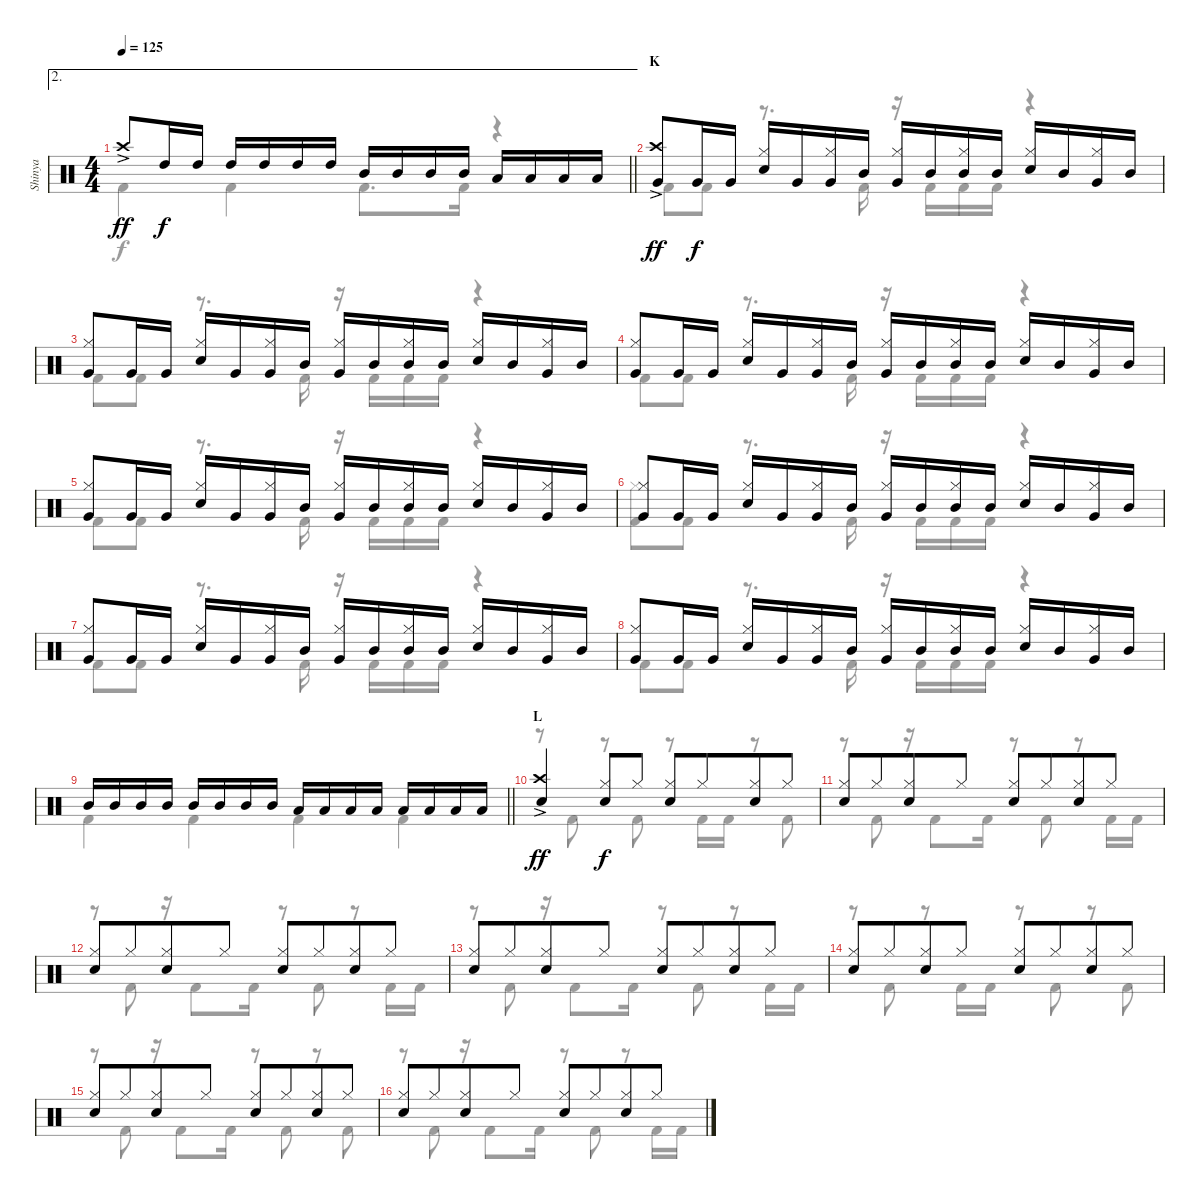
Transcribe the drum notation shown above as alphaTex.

\track ("Shinya" "Shinya") {instrument percussion}
\staff {score}
\articulation defaults
\voice
\ae 2
\ts (4 4)
\tempo 125
\clef neutral
\barLineRight lightlight
\ks c "Crash high (hit)"{ac}.8{dy ff} "High Tom (hit)".16{dy f} "High Tom (hit)".16 "High Tom (hit)".16 "High Tom (hit)".16 "High Tom (hit)".16 "High Tom (hit)".16 "Mid Tom (hit)".16 "Mid Tom (hit)".16 "Mid Tom (hit)".16 "Mid Tom (hit)".16 "Low Tom (hit)".16 "Low Tom (hit)".16 "Low Tom (hit)".16 "Low Tom (hit)".16
|
\section ("" "K")
("Crash high (hit)"{ac} "Very Low Tom (hit)").8{dy ff} "Very Low Tom (hit)".16{dy f} "Very Low Tom (hit)".16 ("Hi-Hat (closed)" "Snare (hit) 2").16 "Very Low Tom (hit)".16 ("Hi-Hat (closed)" "Very Low Tom (hit)").16 "Mid Tom (hit)".16 ("Hi-Hat (closed)" "Very Low Tom (hit)").16 "Mid Tom (hit)".16 ("Hi-Hat (closed)" "Mid Tom (hit)").16 "Mid Tom (hit)".16 ("Hi-Hat (closed)" "Snare (hit) 2").16 "Mid Tom (hit)".16 ("Hi-Hat (closed)" "Very Low Tom (hit)").16 "Mid Tom (hit)".16 |
("Hi-Hat (closed)" "Very Low Tom (hit)").8 "Very Low Tom (hit)".16 "Very Low Tom (hit)".16 ("Hi-Hat (closed)" "Snare (hit) 2").16 "Very Low Tom (hit)".16 ("Hi-Hat (closed)" "Very Low Tom (hit)").16 "Mid Tom (hit)".16 ("Hi-Hat (closed)" "Very Low Tom (hit)").16 "Mid Tom (hit)".16 ("Hi-Hat (closed)" "Mid Tom (hit)").16 "Mid Tom (hit)".16 ("Hi-Hat (closed)" "Snare (hit) 2").16 "Mid Tom (hit)".16 ("Hi-Hat (closed)" "Very Low Tom (hit)").16 "Mid Tom (hit)".16 |
("Hi-Hat (closed)" "Very Low Tom (hit)").8 "Very Low Tom (hit)".16 "Very Low Tom (hit)".16 ("Hi-Hat (closed)" "Snare (hit) 2").16 "Very Low Tom (hit)".16 ("Hi-Hat (closed)" "Very Low Tom (hit)").16 "Mid Tom (hit)".16 ("Hi-Hat (closed)" "Very Low Tom (hit)").16 "Mid Tom (hit)".16 ("Hi-Hat (closed)" "Mid Tom (hit)").16 "Mid Tom (hit)".16 ("Hi-Hat (closed)" "Snare (hit) 2").16 "Mid Tom (hit)".16 ("Hi-Hat (closed)" "Very Low Tom (hit)").16 "Mid Tom (hit)".16 |
("Hi-Hat (closed)" "Very Low Tom (hit)").8 "Very Low Tom (hit)".16 "Very Low Tom (hit)".16 ("Hi-Hat (closed)" "Snare (hit) 2").16 "Very Low Tom (hit)".16 ("Hi-Hat (closed)" "Very Low Tom (hit)").16 "Mid Tom (hit)".16 ("Hi-Hat (closed)" "Very Low Tom (hit)").16 "Mid Tom (hit)".16 ("Hi-Hat (closed)" "Mid Tom (hit)").16 "Mid Tom (hit)".16 ("Hi-Hat (closed)" "Snare (hit) 2").16 "Mid Tom (hit)".16 ("Hi-Hat (closed)" "Very Low Tom (hit)").16 "Mid Tom (hit)".16 |
("Hi-Hat (closed)" "Very Low Tom (hit)").8 "Very Low Tom (hit)".16 "Very Low Tom (hit)".16 ("Hi-Hat (closed)" "Snare (hit) 2").16 "Very Low Tom (hit)".16 ("Hi-Hat (closed)" "Very Low Tom (hit)").16 "Mid Tom (hit)".16 ("Hi-Hat (closed)" "Very Low Tom (hit)").16 "Mid Tom (hit)".16 ("Hi-Hat (closed)" "Mid Tom (hit)").16 "Mid Tom (hit)".16 ("Hi-Hat (closed)" "Snare (hit) 2").16 "Mid Tom (hit)".16 ("Hi-Hat (closed)" "Very Low Tom (hit)").16 "Mid Tom (hit)".16 |
("Hi-Hat (closed)" "Very Low Tom (hit)").8 "Very Low Tom (hit)".16 "Very Low Tom (hit)".16 ("Hi-Hat (closed)" "Snare (hit) 2").16 "Very Low Tom (hit)".16 ("Hi-Hat (closed)" "Very Low Tom (hit)").16 "Mid Tom (hit)".16 ("Hi-Hat (closed)" "Very Low Tom (hit)").16 "Mid Tom (hit)".16 ("Hi-Hat (closed)" "Mid Tom (hit)").16 "Mid Tom (hit)".16 ("Hi-Hat (closed)" "Snare (hit) 2").16 "Mid Tom (hit)".16 ("Hi-Hat (closed)" "Very Low Tom (hit)").16 "Mid Tom (hit)".16 |
("Hi-Hat (closed)" "Very Low Tom (hit)").8 "Very Low Tom (hit)".16 "Very Low Tom (hit)".16 ("Hi-Hat (closed)" "Snare (hit) 2").16 "Very Low Tom (hit)".16 ("Hi-Hat (closed)" "Very Low Tom (hit)").16 "Mid Tom (hit)".16 ("Hi-Hat (closed)" "Very Low Tom (hit)").16 "Mid Tom (hit)".16 ("Hi-Hat (closed)" "Mid Tom (hit)").16 "Mid Tom (hit)".16 ("Hi-Hat (closed)" "Snare (hit) 2").16 "Mid Tom (hit)".16 ("Hi-Hat (closed)" "Very Low Tom (hit)").16 "Mid Tom (hit)".16 |
\barLineRight lightlight "Mid Tom (hit)".16 "Mid Tom (hit)".16 "Mid Tom (hit)".16 "Mid Tom (hit)".16 "Mid Tom (hit)".16 "Mid Tom (hit)".16 "Mid Tom (hit)".16 "Mid Tom (hit)".16 "Low Tom (hit)".16 "Low Tom (hit)".16 "Low Tom (hit)".16 "Low Tom (hit)".16 "Low Tom (hit)".16 "Low Tom (hit)".16 "Low Tom (hit)".16 "Low Tom (hit)".16
|
\section ("" "L")
("Crash high (hit)"{ac} "Snare (hit) 2").4{dy ff} ("Hi-Hat (closed)" "Snare (hit) 2").8{dy f} "Hi-Hat (closed)".8 ("Hi-Hat (closed)" "Snare (hit) 2").8 "Hi-Hat (closed)".8{beam merge} ("Hi-Hat (closed)" "Snare (hit) 2").8 "Hi-Hat (closed)".8 |
("Hi-Hat (closed)" "Snare (hit) 2").8 "Hi-Hat (closed)".8{beam merge} ("Hi-Hat (closed)" "Snare (hit) 2").8 "Hi-Hat (closed)".8 ("Hi-Hat (closed)" "Snare (hit) 2").8 "Hi-Hat (closed)".8{beam merge} ("Hi-Hat (closed)" "Snare (hit) 2").8 "Hi-Hat (closed)".8 |
("Hi-Hat (closed)" "Snare (hit) 2").8 "Hi-Hat (closed)".8{beam merge} ("Hi-Hat (closed)" "Snare (hit) 2").8 "Hi-Hat (closed)".8 ("Hi-Hat (closed)" "Snare (hit) 2").8 "Hi-Hat (closed)".8{beam merge} ("Hi-Hat (closed)" "Snare (hit) 2").8 "Hi-Hat (closed)".8 |
("Hi-Hat (closed)" "Snare (hit) 2").8 "Hi-Hat (closed)".8{beam merge} ("Hi-Hat (closed)" "Snare (hit) 2").8 "Hi-Hat (closed)".8 ("Hi-Hat (closed)" "Snare (hit) 2").8 "Hi-Hat (closed)".8{beam merge} ("Hi-Hat (closed)" "Snare (hit) 2").8 "Hi-Hat (closed)".8 |
("Hi-Hat (closed)" "Snare (hit) 2").8 "Hi-Hat (closed)".8{beam merge} ("Hi-Hat (closed)" "Snare (hit) 2").8 "Hi-Hat (closed)".8 ("Hi-Hat (closed)" "Snare (hit) 2").8 "Hi-Hat (closed)".8{beam merge} ("Hi-Hat (closed)" "Snare (hit) 2").8 "Hi-Hat (closed)".8 |
("Hi-Hat (closed)" "Snare (hit) 2").8 "Hi-Hat (closed)".8{beam merge} ("Hi-Hat (closed)" "Snare (hit) 2").8 "Hi-Hat (closed)".8 ("Hi-Hat (closed)" "Snare (hit) 2").8 "Hi-Hat (closed)".8{beam merge} ("Hi-Hat (closed)" "Snare (hit) 2").8 "Hi-Hat (closed)".8 |
("Hi-Hat (closed)" "Snare (hit) 2").8 "Hi-Hat (closed)".8{beam merge} ("Hi-Hat (closed)" "Snare (hit) 2").8 "Hi-Hat (closed)".8 ("Hi-Hat (closed)" "Snare (hit) 2").8 "Hi-Hat (closed)".8{beam merge} ("Hi-Hat (closed)" "Snare (hit) 2").8 "Hi-Hat (closed)".8
\voice
\clef neutral
\ottava regular
\simile none
\barLineRight lightlight
\ks c "Kick (hit) 2".4{dy f} "Kick (hit) 2".4 "Kick (hit) 2".8{d} "Kick (hit) 2".16
r.4 |
"Kick (hit) 2".8 "Kick (hit) 2".8 r.8{d} "Kick (hit) 2".16 r.16 "Kick (hit) 2".16 "Kick (hit) 2".16 "Kick (hit) 2".16 r.4 |
"Kick (hit) 2".8 "Kick (hit) 2".8 r.8{d} "Kick (hit) 2".16 r.16 "Kick (hit) 2".16 "Kick (hit) 2".16 "Kick (hit) 2".16 r.4 |
"Kick (hit) 2".8 "Kick (hit) 2".8 r.8{d} "Kick (hit) 2".16 r.16 "Kick (hit) 2".16 "Kick (hit) 2".16 "Kick (hit) 2".16 r.4 |
"Kick (hit) 2".8 "Kick (hit) 2".8 r.8{d} "Kick (hit) 2".16 r.16 "Kick (hit) 2".16 "Kick (hit) 2".16 "Kick (hit) 2".16 r.4 |
("Hi-Hat (closed)" "Kick (hit) 2").8 "Kick (hit) 2".8 r.8{d} "Kick (hit) 2".16 r.16 "Kick (hit) 2".16 "Kick (hit) 2".16 "Kick (hit) 2".16 r.4 |
"Kick (hit) 2".8 "Kick (hit) 2".8 r.8{d} "Kick (hit) 2".16 r.16 "Kick (hit) 2".16 "Kick (hit) 2".16 "Kick (hit) 2".16 r.4 |
"Kick (hit) 2".8 "Kick (hit) 2".8 r.8{d} "Kick (hit) 2".16 r.16 "Kick (hit) 2".16 "Kick (hit) 2".16 "Kick (hit) 2".16 r.4 |
\barLineRight lightlight "Kick (hit) 2".4 "Kick (hit) 2".4 "Kick (hit) 2".4 "Kick (hit) 2".4
|
r.8 "Kick (hit) 2".8 r.8 "Kick (hit) 2".8 r.8 "Kick (hit) 2".16 "Kick (hit) 2".16 r.8 "Kick (hit) 2".8 |
r.8 "Kick (hit) 2".8 r.16 "Kick (hit) 2".8 "Kick (hit) 2".16 r.8 "Kick (hit) 2".8 r.8 "Kick (hit) 2".16 "Kick (hit) 2".16 |
r.8 "Kick (hit) 2".8 r.16 "Kick (hit) 2".8 "Kick (hit) 2".16 r.8 "Kick (hit) 2".8 r.8 "Kick (hit) 2".16 "Kick (hit) 2".16 |
r.8 "Kick (hit) 2".8 r.16 "Kick (hit) 2".8 "Kick (hit) 2".16 r.8 "Kick (hit) 2".8 r.8 "Kick (hit) 2".16 "Kick (hit) 2".16 |
r.8 "Kick (hit) 2".8 r.8 "Kick (hit) 2".16 "Kick (hit) 2".16 r.8 "Kick (hit) 2".8 r.8 "Kick (hit) 2".8 |
r.8 "Kick (hit) 2".8 r.16 "Kick (hit) 2".8 "Kick (hit) 2".16 r.8 "Kick (hit) 2".8 r.8 "Kick (hit) 2".8 |
r.8 "Kick (hit) 2".8 r.16 "Kick (hit) 2".8 "Kick (hit) 2".16 r.8 "Kick (hit) 2".8 r.8 "Kick (hit) 2".16 "Kick (hit) 2".16
